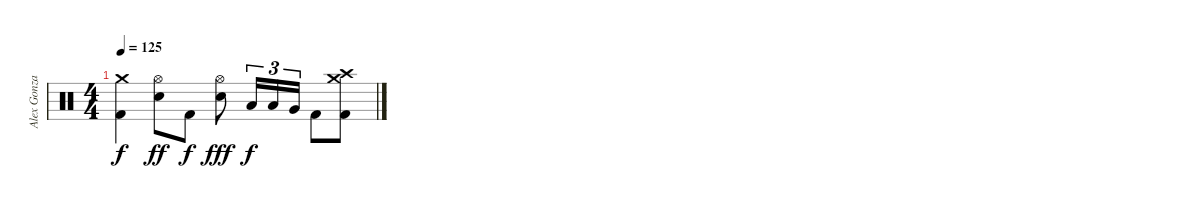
\track ("Alex Gonzales" "Alex Gonza") {instrument percussion}
\staff {score}
\articulation defaults
\ts (4 4)
\tempo 125
\clef neutral
\ks c
("Crash medium (hit)" "Kick (hit) 2").4{dy f} ("Hi-Hat (open)" "Electric Snare (hit)").8{dy ff} "Kick (hit) 2".8{dy f} ("Hi-Hat (open)" "Electric Snare (hit)").8{dy fff} "Low Tom (hit)".16{tu (3 2) dy f} "Low Tom (hit)".16{tu (3 2)} "Very Low Tom (hit)".16{tu (3 2)} "Kick (hit) 2".8 ("Crash medium (hit)" "Crash high (hit)" "Kick (hit) 2").8
